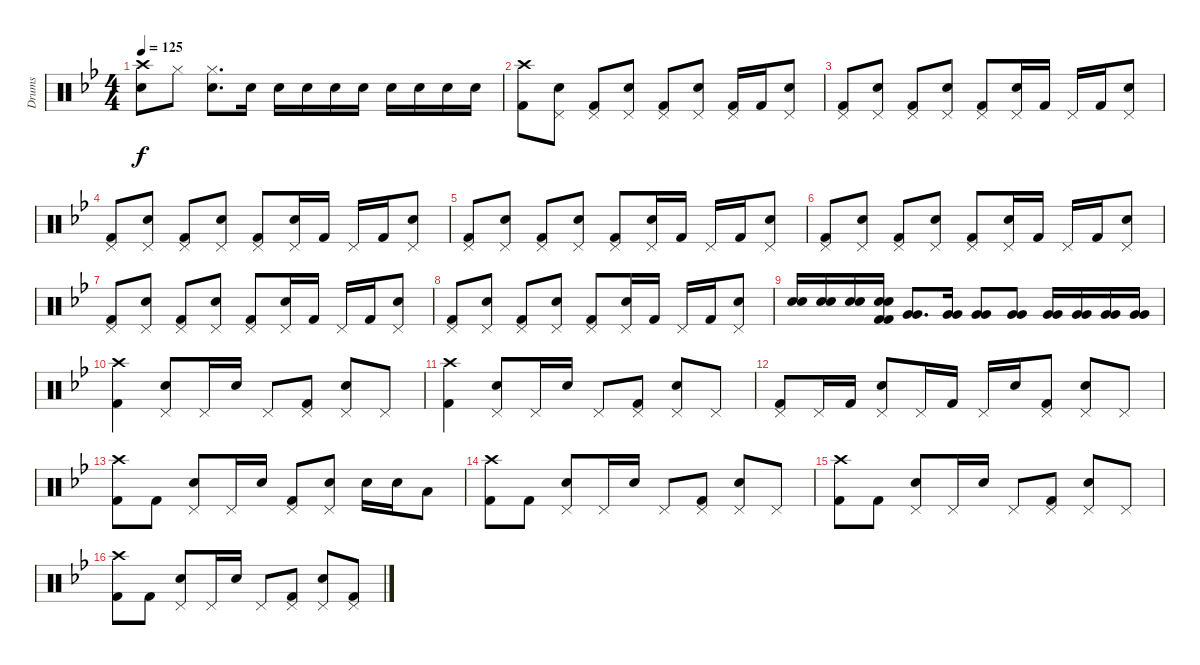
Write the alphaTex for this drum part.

\track ("Drums" "Drums") {instrument percussion}
\staff {score}
\articulation defaults
\ts (4 4)
\tempo 125
\clef neutral
\ks bb
("Crash high (hit)" "Electric Snare (hit)").8{dy f} "Hi-Hat (closed)".8 ("Hi-Hat (closed)" "Electric Snare (hit)").8{d} "Electric Snare (hit)".16 "Electric Snare (hit)".16 "Electric Snare (hit)".16 "Electric Snare (hit)".16 "Electric Snare (hit)".16 "Electric Snare (hit)".16 "Electric Snare (hit)".16 "Electric Snare (hit)".16 "Electric Snare (hit)".16 |
("Crash high (hit)" "Kick (hit) 2").8 ("Pedal Hi-Hat (hit)" "Electric Snare (hit)").8 ("Pedal Hi-Hat (hit)" "Kick (hit) 2").8 ("Pedal Hi-Hat (hit)" "Electric Snare (hit)").8 ("Pedal Hi-Hat (hit)" "Kick (hit) 2").8 ("Pedal Hi-Hat (hit)" "Electric Snare (hit)").8 ("Pedal Hi-Hat (hit)" "Kick (hit) 2").16 "Kick (hit) 2".16 ("Pedal Hi-Hat (hit)" "Electric Snare (hit)").8 |
("Pedal Hi-Hat (hit)" "Kick (hit) 2").8 ("Pedal Hi-Hat (hit)" "Electric Snare (hit)").8 ("Pedal Hi-Hat (hit)" "Kick (hit) 2").8 ("Pedal Hi-Hat (hit)" "Electric Snare (hit)").8 ("Pedal Hi-Hat (hit)" "Kick (hit) 2").8 ("Pedal Hi-Hat (hit)" "Electric Snare (hit)").16 "Kick (hit) 2".16 "Pedal Hi-Hat (hit)".16 "Kick (hit) 2".16 ("Pedal Hi-Hat (hit)" "Electric Snare (hit)").8 |
("Pedal Hi-Hat (hit)" "Kick (hit) 2").8 ("Pedal Hi-Hat (hit)" "Electric Snare (hit)").8 ("Pedal Hi-Hat (hit)" "Kick (hit) 2").8 ("Pedal Hi-Hat (hit)" "Electric Snare (hit)").8 ("Pedal Hi-Hat (hit)" "Kick (hit) 2").8 ("Pedal Hi-Hat (hit)" "Electric Snare (hit)").16 "Kick (hit) 2".16 "Pedal Hi-Hat (hit)".16 "Kick (hit) 2".16 ("Pedal Hi-Hat (hit)" "Electric Snare (hit)").8 |
("Pedal Hi-Hat (hit)" "Kick (hit) 2").8 ("Pedal Hi-Hat (hit)" "Electric Snare (hit)").8 ("Pedal Hi-Hat (hit)" "Kick (hit) 2").8 ("Pedal Hi-Hat (hit)" "Electric Snare (hit)").8 ("Pedal Hi-Hat (hit)" "Kick (hit) 2").8 ("Pedal Hi-Hat (hit)" "Electric Snare (hit)").16 "Kick (hit) 2".16 "Pedal Hi-Hat (hit)".16 "Kick (hit) 2".16 ("Pedal Hi-Hat (hit)" "Electric Snare (hit)").8 |
("Pedal Hi-Hat (hit)" "Kick (hit) 2").8 ("Pedal Hi-Hat (hit)" "Electric Snare (hit)").8 ("Pedal Hi-Hat (hit)" "Kick (hit) 2").8 ("Pedal Hi-Hat (hit)" "Electric Snare (hit)").8 ("Pedal Hi-Hat (hit)" "Kick (hit) 2").8 ("Pedal Hi-Hat (hit)" "Electric Snare (hit)").16 "Kick (hit) 2".16 "Pedal Hi-Hat (hit)".16 "Kick (hit) 2".16 ("Pedal Hi-Hat (hit)" "Electric Snare (hit)").8 |
("Pedal Hi-Hat (hit)" "Kick (hit) 2").8 ("Pedal Hi-Hat (hit)" "Electric Snare (hit)").8 ("Pedal Hi-Hat (hit)" "Kick (hit) 2").8 ("Pedal Hi-Hat (hit)" "Electric Snare (hit)").8 ("Pedal Hi-Hat (hit)" "Kick (hit) 2").8 ("Pedal Hi-Hat (hit)" "Electric Snare (hit)").16 "Kick (hit) 2".16 "Pedal Hi-Hat (hit)".16 "Kick (hit) 2".16 ("Pedal Hi-Hat (hit)" "Electric Snare (hit)").8 |
("Pedal Hi-Hat (hit)" "Kick (hit) 2").8 ("Pedal Hi-Hat (hit)" "Electric Snare (hit)").8 ("Pedal Hi-Hat (hit)" "Kick (hit) 2").8 ("Pedal Hi-Hat (hit)" "Electric Snare (hit)").8 ("Pedal Hi-Hat (hit)" "Kick (hit) 2").8 ("Pedal Hi-Hat (hit)" "Electric Snare (hit)").16 "Kick (hit) 2".16 "Pedal Hi-Hat (hit)".16 "Kick (hit) 2".16 ("Pedal Hi-Hat (hit)" "Electric Snare (hit)").8 |
("Electric Snare (hit)" "Electric Snare (hit)").16 ("Electric Snare (hit)" "Electric Snare (hit)").16 ("Electric Snare (hit)" "Electric Snare (hit)").16 ("Electric Snare (hit)" "Electric Snare (hit)" "Kick (hit) 2" "Kick (hit) 2").16 ("Very Low Tom (hit)" "Very Low Tom (hit)").8{d} ("Very Low Tom (hit)" "Very Low Tom (hit)").16 ("Very Low Tom (hit)" "Very Low Tom (hit)").8 ("Very Low Tom (hit)" "Very Low Tom (hit)").8 ("Very Low Tom (hit)" "Very Low Tom (hit)").16 ("Very Low Tom (hit)" "Very Low Tom (hit)").16 ("Very Low Tom (hit)" "Very Low Tom (hit)").16 ("Very Low Tom (hit)" "Very Low Tom (hit)").16 |
("Crash high (hit)" "Kick (hit) 2").4 ("Pedal Hi-Hat (hit)" "Electric Snare (hit)").8 "Pedal Hi-Hat (hit)".16 "Electric Snare (hit)".16 "Pedal Hi-Hat (hit)".8 ("Pedal Hi-Hat (hit)" "Kick (hit) 2").8 ("Pedal Hi-Hat (hit)" "Electric Snare (hit)").8 "Pedal Hi-Hat (hit)".8 |
("Crash high (hit)" "Kick (hit) 2").4 ("Pedal Hi-Hat (hit)" "Electric Snare (hit)").8 "Pedal Hi-Hat (hit)".16 "Electric Snare (hit)".16 "Pedal Hi-Hat (hit)".8 ("Pedal Hi-Hat (hit)" "Kick (hit) 2").8 ("Pedal Hi-Hat (hit)" "Electric Snare (hit)").8 "Pedal Hi-Hat (hit)".8 |
("Pedal Hi-Hat (hit)" "Kick (hit) 2").8 "Pedal Hi-Hat (hit)".16 "Kick (hit) 2".16 ("Pedal Hi-Hat (hit)" "Electric Snare (hit)").8 "Pedal Hi-Hat (hit)".16 "Kick (hit) 2".16 "Pedal Hi-Hat (hit)".16 "Electric Snare (hit)".16 ("Pedal Hi-Hat (hit)" "Kick (hit) 2").8 ("Pedal Hi-Hat (hit)" "Electric Snare (hit)").8 "Pedal Hi-Hat (hit)".8 |
("Crash high (hit)" "Kick (hit) 2").8 "Kick (hit) 2".8 ("Pedal Hi-Hat (hit)" "Electric Snare (hit)").8 "Pedal Hi-Hat (hit)".16 "Electric Snare (hit)".16 ("Pedal Hi-Hat (hit)" "Kick (hit) 2").8 ("Pedal Hi-Hat (hit)" "Electric Snare (hit)").8 "Electric Snare (hit)".16 "Electric Snare (hit)".16 "Low Tom (hit)".8 |
("Crash high (hit)" "Kick (hit) 2").8 "Kick (hit) 2".8 ("Pedal Hi-Hat (hit)" "Electric Snare (hit)").8 "Pedal Hi-Hat (hit)".16 "Electric Snare (hit)".16 "Pedal Hi-Hat (hit)".8 ("Pedal Hi-Hat (hit)" "Kick (hit) 2").8 ("Pedal Hi-Hat (hit)" "Electric Snare (hit)").8 "Pedal Hi-Hat (hit)".8 |
("Crash high (hit)" "Kick (hit) 2").8 "Kick (hit) 2".8 ("Pedal Hi-Hat (hit)" "Electric Snare (hit)").8 "Pedal Hi-Hat (hit)".16 "Electric Snare (hit)".16 "Pedal Hi-Hat (hit)".8 ("Pedal Hi-Hat (hit)" "Kick (hit) 2").8 ("Pedal Hi-Hat (hit)" "Electric Snare (hit)").8 "Pedal Hi-Hat (hit)".8 |
("Crash high (hit)" "Kick (hit) 2").8 "Kick (hit) 2".8 ("Pedal Hi-Hat (hit)" "Electric Snare (hit)").8 "Pedal Hi-Hat (hit)".16 "Electric Snare (hit)".16 "Pedal Hi-Hat (hit)".8 ("Pedal Hi-Hat (hit)" "Kick (hit) 2").8 ("Pedal Hi-Hat (hit)" "Electric Snare (hit)").8 ("Pedal Hi-Hat (hit)" "Kick (hit) 2").8
